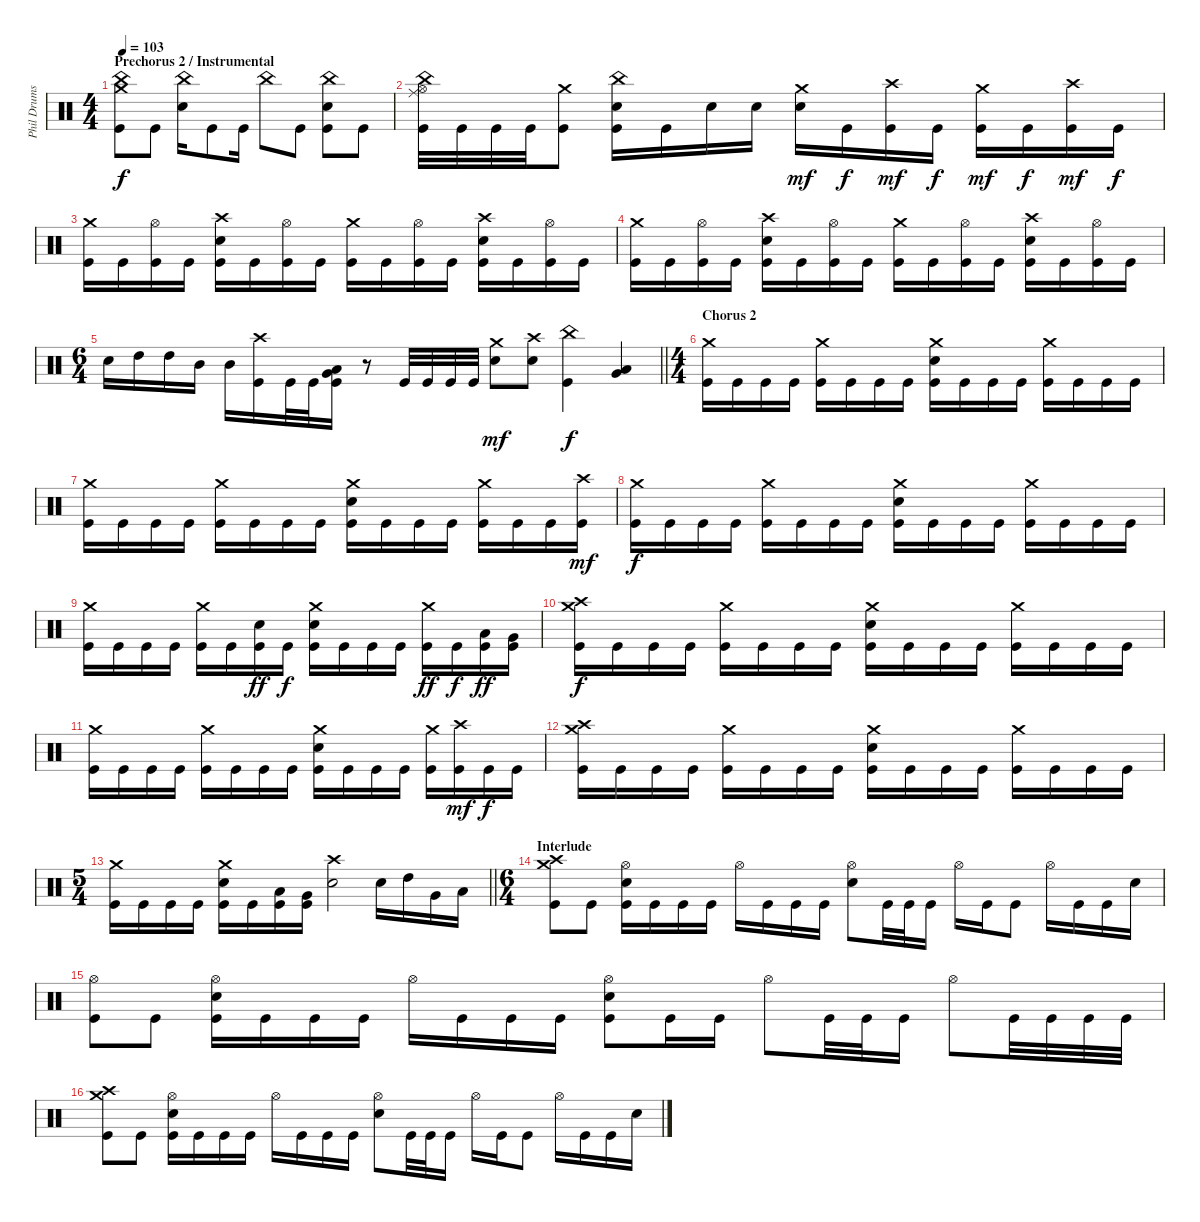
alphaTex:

\track ("Phil Drums" "Phil Drums") {instrument percussion}
\staff {score}
\articulation defaults
\ts (4 4)
\section ("" "Prechorus 2 / Instrumental")
\tempo 103
\clef neutral
\ks c
("Crash medium (hit)" "China (hit)" "Kick (hit)").8{dy f} "Kick (hit)".8 ("China (hit)" "Snare (hit) 2").16 "Kick (hit)".8 "Kick (hit)".16 "China (hit)".8 "Kick (hit)".8 ("China (hit)" "Snare (hit) 2" "Kick (hit)").8 "Kick (hit)".8 |
("China (hit)" "Ride (middle)" "Hi-Hat (open)" "Kick (hit)").32 "Kick (hit)".32 "Kick (hit)".32 "Kick (hit)".32 ("Crash medium (hit)" "Kick (hit)").8 ("China (hit)" "Snare (hit) 2" "Kick (hit)").16 "Kick (hit)".16 "Snare (hit) 2".16 "Snare (hit) 2".16 ("Crash medium (hit)" "Snare (hit) 2").16{dy mf} "Kick (hit)".16{dy f} ("Crash high (hit)" "Kick (hit)").16{dy mf} "Kick (hit)".16{dy f} ("Crash medium (hit)" "Kick (hit)").16{dy mf} "Kick (hit)".16{dy f} ("Crash high (hit)" "Kick (hit)").16{dy mf} "Kick (hit)".16{dy f} |
("Crash medium (hit)" "Kick (hit)").16 "Kick (hit)".16 ("Hi-Hat (open)" "Kick (hit)").16 "Kick (hit)".16 ("Crash high (hit)" "Snare (hit) 2" "Kick (hit)").16 "Kick (hit)".16 ("Hi-Hat (open)" "Kick (hit)").16 "Kick (hit)".16 ("Crash medium (hit)" "Kick (hit)").16 "Kick (hit)".16 ("Hi-Hat (open)" "Kick (hit)").16 "Kick (hit)".16 ("Crash high (hit)" "Snare (hit) 2" "Kick (hit)").16 "Kick (hit)".16 ("Hi-Hat (open)" "Kick (hit)").16 "Kick (hit)".16 |
("Crash medium (hit)" "Kick (hit)").16 "Kick (hit)".16 ("Hi-Hat (open)" "Kick (hit)").16 "Kick (hit)".16 ("Crash high (hit)" "Snare (hit) 2" "Kick (hit)").16 "Kick (hit)".16 ("Hi-Hat (open)" "Kick (hit)").16 "Kick (hit)".16 ("Crash medium (hit)" "Kick (hit)").16 "Kick (hit)".16 ("Hi-Hat (open)" "Kick (hit)").16 "Kick (hit)".16 ("Crash high (hit)" "Snare (hit) 2" "Kick (hit)").16 "Kick (hit)".16 ("Hi-Hat (open)" "Kick (hit)").16 "Kick (hit)".16 |
\ts (6 4)
\barLineRight lightlight "Snare (hit) 2".16 "High Tom (hit)".16 "High Tom (hit)".16 "Mid Tom (hit)".16 "Mid Tom (hit)".16
("Crash high (hit)" "Kick (hit)").16 "Kick (hit)".32 "Kick (hit)".32 ("Very Low Tom (hit)" "Low Floor Tom (hit)" "Kick (hit)").16 r.8 "Kick (hit)".32 "Kick (hit)".32 "Kick (hit)".32 "Kick (hit)".32 ("Crash medium (hit)" "Snare (hit) 2").8{dy mf} ("Crash high (hit)" "Snare (hit) 2").8 ("China (hit)" "Kick (hit)").4{dy f} ("Very Low Tom (hit)" "Low Floor Tom (hit)").4 |
\ts (4 4)
\section ("" "Chorus 2")
("Crash medium (hit)" "Kick (hit)").16 "Kick (hit)".16 "Kick (hit)".16 "Kick (hit)".16 ("Crash medium (hit)" "Kick (hit)").16 "Kick (hit)".16 "Kick (hit)".16 "Kick (hit)".16 ("Crash medium (hit)" "Snare (hit) 2" "Kick (hit)").16 "Kick (hit)".16 "Kick (hit)".16 "Kick (hit)".16 ("Crash medium (hit)" "Kick (hit)").16 "Kick (hit)".16 "Kick (hit)".16 "Kick (hit)".16 |
("Crash medium (hit)" "Kick (hit)").16 "Kick (hit)".16 "Kick (hit)".16 "Kick (hit)".16 ("Crash medium (hit)" "Kick (hit)").16 "Kick (hit)".16 "Kick (hit)".16 "Kick (hit)".16 ("Crash medium (hit)" "Snare (hit) 2" "Kick (hit)").16 "Kick (hit)".16 "Kick (hit)".16 "Kick (hit)".16 ("Crash medium (hit)" "Kick (hit)").16 "Kick (hit)".16 "Kick (hit)".16 ("Crash high (hit)" "Kick (hit)").16{dy mf} |
("Crash medium (hit)" "Kick (hit)").16{dy f} "Kick (hit)".16 "Kick (hit)".16 "Kick (hit)".16 ("Crash medium (hit)" "Kick (hit)").16 "Kick (hit)".16 "Kick (hit)".16 "Kick (hit)".16 ("Crash medium (hit)" "Snare (hit) 2" "Kick (hit)").16 "Kick (hit)".16 "Kick (hit)".16 "Kick (hit)".16 ("Crash medium (hit)" "Kick (hit)").16 "Kick (hit)".16 "Kick (hit)".16 "Kick (hit)".16 |
("Crash medium (hit)" "Kick (hit)").16 "Kick (hit)".16 "Kick (hit)".16 "Kick (hit)".16 ("Crash medium (hit)" "Kick (hit)").16 "Kick (hit)".16 ("Snare (hit) 2" "Kick (hit)").16{dy ff} "Kick (hit)".16{dy f} ("Crash medium (hit)" "Snare (hit) 2" "Kick (hit)").16 "Kick (hit)".16 "Kick (hit)".16 "Kick (hit)".16 ("Crash medium (hit)" "Kick (hit)").16{dy ff} "Kick (hit)".16{dy f} ("Low Tom (hit)" "Kick (hit)").16{dy ff} ("Very Low Tom (hit)" "Kick (hit)").16 |
("Crash medium (hit)" "Crash high (hit)" "Kick (hit)").16{dy f} "Kick (hit)".16 "Kick (hit)".16 "Kick (hit)".16 ("Crash medium (hit)" "Kick (hit)").16 "Kick (hit)".16 "Kick (hit)".16 "Kick (hit)".16 ("Crash medium (hit)" "Snare (hit) 2" "Kick (hit)").16 "Kick (hit)".16 "Kick (hit)".16 "Kick (hit)".16 ("Crash medium (hit)" "Kick (hit)").16 "Kick (hit)".16 "Kick (hit)".16 "Kick (hit)".16 |
("Crash medium (hit)" "Kick (hit)").16 "Kick (hit)".16 "Kick (hit)".16 "Kick (hit)".16 ("Crash medium (hit)" "Kick (hit)").16 "Kick (hit)".16 "Kick (hit)".16 "Kick (hit)".16 ("Crash medium (hit)" "Snare (hit) 2" "Kick (hit)").16 "Kick (hit)".16 "Kick (hit)".16 "Kick (hit)".16 ("Crash medium (hit)" "Kick (hit)").16 ("Crash high (hit)" "Kick (hit)").16{dy mf} "Kick (hit)".16{dy f} "Kick (hit)".16 |
("Crash medium (hit)" "Crash high (hit)" "Kick (hit)").16 "Kick (hit)".16 "Kick (hit)".16 "Kick (hit)".16 ("Crash medium (hit)" "Kick (hit)").16 "Kick (hit)".16 "Kick (hit)".16 "Kick (hit)".16 ("Crash medium (hit)" "Snare (hit) 2" "Kick (hit)").16 "Kick (hit)".16 "Kick (hit)".16 "Kick (hit)".16 ("Crash medium (hit)" "Kick (hit)").16 "Kick (hit)".16 "Kick (hit)".16 "Kick (hit)".16 |
\ts (5 4)
\barLineRight lightlight
("Crash medium (hit)" "Kick (hit)").16 "Kick (hit)".16 "Kick (hit)".16 "Kick (hit)".16 ("Crash medium (hit)" "Snare (hit) 2" "Kick (hit)").16 "Kick (hit)".16 ("Low Tom (hit)" "Kick (hit)").16 ("Very Low Tom (hit)" "Kick (hit)").16 ("Crash high (hit)" "Snare (hit) 2").2 "Snare (hit) 2".16 "High Tom (hit)".16 "Very Low Tom (hit)".16 "Low Floor Tom (hit)".16 |
\ts (6 4)
\section ("" "Interlude")
("Crash medium (hit)" "Crash high (hit)" "Kick (hit)").8 "Kick (hit)".8 ("Hi-Hat (open)" "Snare (hit) 2" "Kick (hit)").16 "Kick (hit)".16 "Kick (hit)".16 "Kick (hit)".16 "Hi-Hat (open)".16 "Kick (hit)".16 "Kick (hit)".16 "Kick (hit)".16 ("Hi-Hat (open)" "Snare (hit) 2").8 "Kick (hit)".32 "Kick (hit)".32 "Kick (hit)".16 "Hi-Hat (open)".16 "Kick (hit)".16 "Kick (hit)".8 "Hi-Hat (open)".16 "Kick (hit)".16 "Kick (hit)".16 "Snare (hit) 2".16 |
("Hi-Hat (open)" "Kick (hit)").8 "Kick (hit)".8 ("Hi-Hat (open)" "Snare (hit) 2" "Kick (hit)").16 "Kick (hit)".16 "Kick (hit)".16 "Kick (hit)".16 "Hi-Hat (open)".16 "Kick (hit)".16 "Kick (hit)".16 "Kick (hit)".16 ("Hi-Hat (open)" "Snare (hit) 2" "Kick (hit)").8 "Kick (hit)".16 "Kick (hit)".16 "Hi-Hat (open)".8 "Kick (hit)".32 "Kick (hit)".32 "Kick (hit)".16 "Hi-Hat (open)".8 "Kick (hit)".32 "Kick (hit)".32 "Kick (hit)".32 "Kick (hit)".32 |
("Crash medium (hit)" "Crash high (hit)" "Kick (hit)").8 "Kick (hit)".8 ("Hi-Hat (open)" "Snare (hit) 2" "Kick (hit)").16 "Kick (hit)".16 "Kick (hit)".16 "Kick (hit)".16 "Hi-Hat (open)".16 "Kick (hit)".16 "Kick (hit)".16 "Kick (hit)".16 ("Hi-Hat (open)" "Snare (hit) 2").8 "Kick (hit)".32 "Kick (hit)".32 "Kick (hit)".16 "Hi-Hat (open)".16 "Kick (hit)".16 "Kick (hit)".8 "Hi-Hat (open)".16 "Kick (hit)".16 "Kick (hit)".16 "Snare (hit) 2".16
